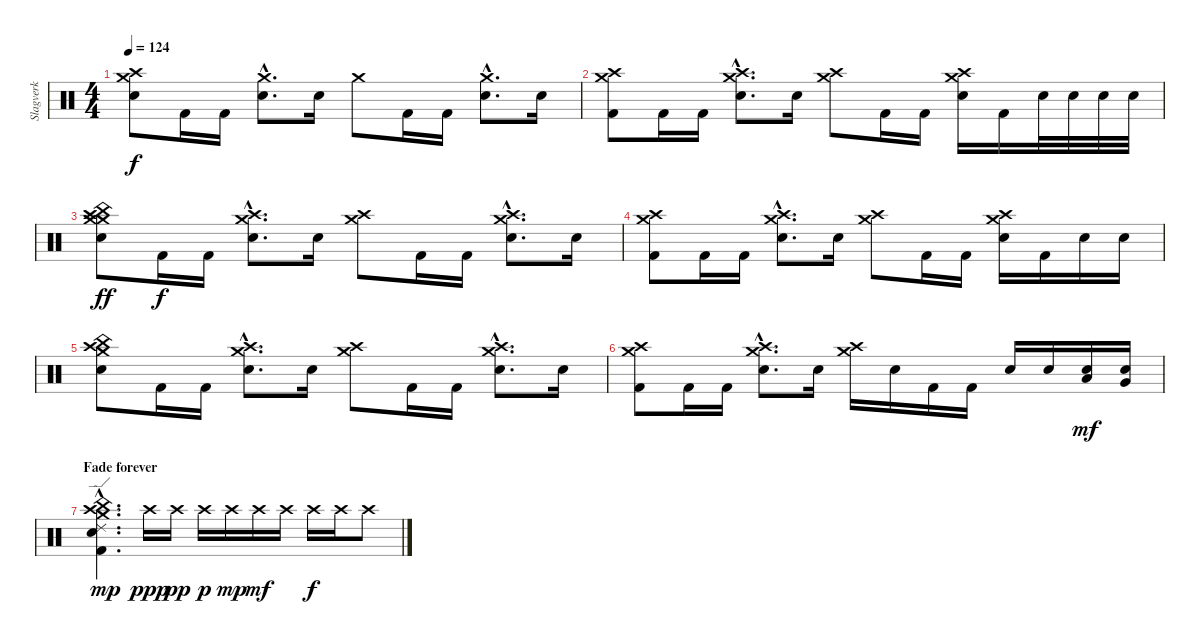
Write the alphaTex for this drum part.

\track ("Slagverk" "Slagverk") {instrument percussion}
\staff {score}
\articulation defaults
\ts (4 4)
\tempo 124
\clef neutral
\ks c
("Crash medium (hit)" "Crash high (hit)" "Electric Snare (hit)").8{dy f} "Kick (hit) 2".16 "Kick (hit) 2".16 ("Crash medium (hit)"{hac} "Electric Snare (hit)"{hac}).8{d} "Electric Snare (hit)".16 "Crash medium (hit)".8 "Kick (hit) 2".16 "Kick (hit) 2".16 ("Crash medium (hit)"{hac} "Electric Snare (hit)"{hac}).8{d} "Electric Snare (hit)".16 |
("Crash medium (hit)" "Crash high (hit)" "Kick (hit) 2").8 "Kick (hit) 2".16 "Kick (hit) 2".16 ("Crash medium (hit)"{hac} "Crash high (hit)"{hac} "Electric Snare (hit)"{hac}).8{d} "Electric Snare (hit)".16 ("Crash medium (hit)" "Crash high (hit)").8 "Kick (hit) 2".16 "Kick (hit) 2".16 ("Crash medium (hit)" "Crash high (hit)" "Electric Snare (hit)").16 "Kick (hit) 2".16 "Electric Snare (hit)".32 "Electric Snare (hit)".32 "Electric Snare (hit)".32 "Electric Snare (hit)".32 |
\section ("" "")
("Crash medium (hit)" "Crash medium (hit)" "China (hit)" "Crash high (hit)" "Electric Snare (hit)").8{dy ff} "Kick (hit) 2".16{dy f} "Kick (hit) 2".16 ("Crash medium (hit)"{hac} "Crash high (hit)"{hac} "Electric Snare (hit)"{hac}).8{d} "Electric Snare (hit)".16 ("Crash medium (hit)" "Crash high (hit)").8 "Kick (hit) 2".16 "Kick (hit) 2".16 ("Crash medium (hit)"{hac} "Crash high (hit)"{hac} "Electric Snare (hit)"{hac}).8{d} "Electric Snare (hit)".16 |
("Crash medium (hit)" "Crash high (hit)" "Kick (hit) 2").8 "Kick (hit) 2".16 "Kick (hit) 2".16 ("Crash medium (hit)"{hac} "Crash high (hit)"{hac} "Electric Snare (hit)"{hac}).8{d} "Electric Snare (hit)".16 ("Crash medium (hit)" "Crash high (hit)").8 "Kick (hit) 2".16 "Kick (hit) 2".16 ("Crash medium (hit)" "Crash high (hit)" "Electric Snare (hit)").16 "Kick (hit) 2".16 "Electric Snare (hit)".16 "Electric Snare (hit)".16 |
("Crash medium (hit)" "Crash high (hit)" "China (hit)" "Electric Snare (hit)").8 "Kick (hit) 2".16 "Kick (hit) 2".16 ("Crash medium (hit)"{hac} "Crash high (hit)"{hac} "Electric Snare (hit)"{hac}).8{d} "Electric Snare (hit)".16 ("Crash medium (hit)" "Crash high (hit)").8 "Kick (hit) 2".16 "Kick (hit) 2".16 ("Crash medium (hit)"{hac} "Crash high (hit)"{hac} "Electric Snare (hit)"{hac}).8{d} "Electric Snare (hit)".16 |
("Crash medium (hit)" "Crash high (hit)" "Kick (hit) 2").8 "Kick (hit) 2".16 "Kick (hit) 2".16 ("Crash medium (hit)"{hac} "Crash high (hit)"{hac} "Electric Snare (hit)"{hac}).8{d} "Electric Snare (hit)".16 ("Crash medium (hit)" "Crash high (hit)").16 "Electric Snare (hit)".16 "Kick (hit) 2".16 "Kick (hit) 2".16 "Electric Snare (hit)".16 "Electric Snare (hit)".16 ("Electric Snare (hit)" "Low Tom (hit)").16{dy mf} ("Electric Snare (hit)" "Very Low Tom (hit)").16 |
\section ("" "Fade forever")
("Crash medium (hit)"{hac} "Crash high (hit)"{hac} "China (hit)"{hac} "Ride (edge) 2"{hac} "Electric Snare (hit)"{hac} "Kick (hit) 2"{hac}).4{d dy mp} "Crash high (hit)".16{dy ppp} "Crash high (hit)".16{dy pp} "Crash high (hit)".16{dy p} "Crash high (hit)".16{dy mp} "Crash high (hit)".16{dy mf} "Crash high (hit)".16 "Crash high (hit)".16{dy f} "Crash high (hit)".16 "Crash high (hit)".8
